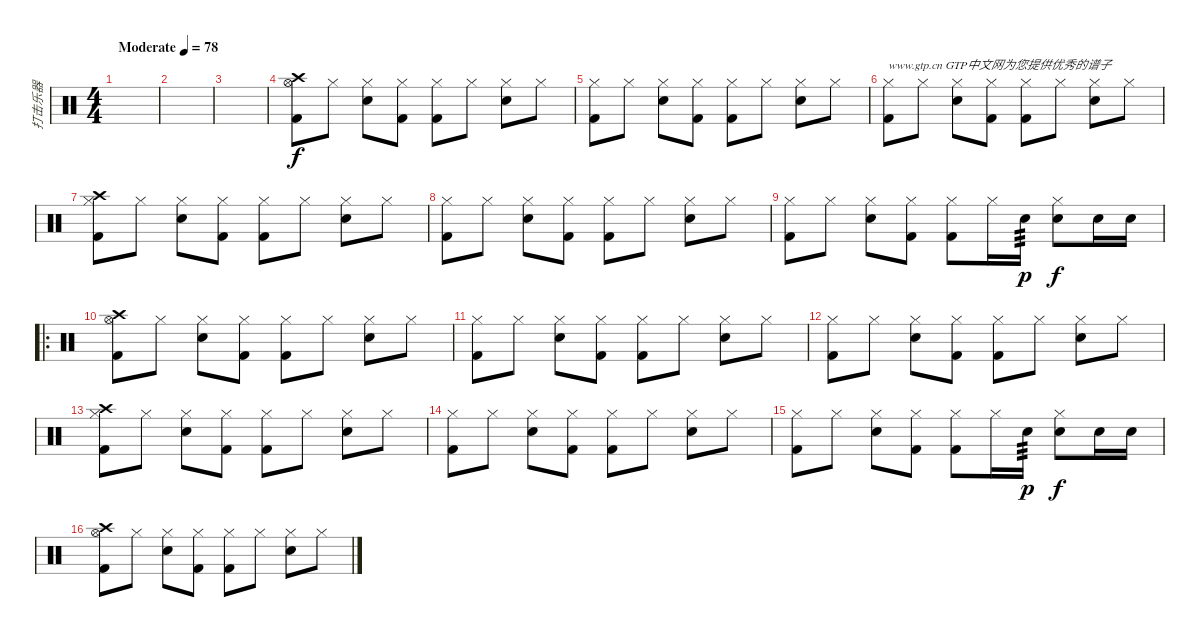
\track ("打击乐器" "打击乐器") {instrument percussion}
\staff {score}
\articulation defaults
\ts (4 4)
\tempo (78 "Moderate")
\clef neutral
\ks c
|
|
|
("Crash high (hit)" "Hi-Hat (open)" "Kick (hit) 2").8 "Hi-Hat (closed)".8 ("Hi-Hat (closed)" "Electric Snare (hit)").8 ("Hi-Hat (closed)" "Kick (hit) 2").8 ("Hi-Hat (closed)" "Kick (hit) 2").8 "Hi-Hat (closed)".8 ("Hi-Hat (closed)" "Electric Snare (hit)").8 "Hi-Hat (closed)".8 |
("Hi-Hat (closed)" "Kick (hit) 2").8 "Hi-Hat (closed)".8 ("Hi-Hat (closed)" "Electric Snare (hit)").8 ("Hi-Hat (closed)" "Kick (hit) 2").8 ("Hi-Hat (closed)" "Kick (hit) 2").8 "Hi-Hat (closed)".8 ("Hi-Hat (closed)" "Electric Snare (hit)").8 "Hi-Hat (closed)".8 |
("Hi-Hat (closed)" "Kick (hit) 2").8{txt "www.gtp.cn GTP中文网为您提供优秀的谱子"} "Hi-Hat (closed)".8 ("Hi-Hat (closed)" "Electric Snare (hit)").8 ("Hi-Hat (closed)" "Kick (hit) 2").8 ("Hi-Hat (closed)" "Kick (hit) 2").8 "Hi-Hat (closed)".8 ("Hi-Hat (closed)" "Electric Snare (hit)").8 "Hi-Hat (closed)".8 |
("Crash high (hit)" "Hi-Hat (closed)" "Kick (hit) 2").8 "Hi-Hat (closed)".8 ("Hi-Hat (closed)" "Electric Snare (hit)").8 ("Hi-Hat (closed)" "Kick (hit) 2").8 ("Hi-Hat (closed)" "Kick (hit) 2").8 "Hi-Hat (closed)".8 ("Hi-Hat (closed)" "Electric Snare (hit)").8 "Hi-Hat (closed)".8 |
("Hi-Hat (closed)" "Kick (hit) 2").8 "Hi-Hat (closed)".8 ("Hi-Hat (closed)" "Electric Snare (hit)").8 ("Hi-Hat (closed)" "Kick (hit) 2").8 ("Hi-Hat (closed)" "Kick (hit) 2").8 "Hi-Hat (closed)".8 ("Hi-Hat (closed)" "Electric Snare (hit)").8 "Hi-Hat (closed)".8 |
("Hi-Hat (closed)" "Kick (hit) 2").8 "Hi-Hat (closed)".8 ("Hi-Hat (closed)" "Electric Snare (hit)").8 ("Hi-Hat (closed)" "Kick (hit) 2").8 ("Hi-Hat (closed)" "Kick (hit) 2").8 "Hi-Hat (closed)".16 "Electric Snare (hit)".16{tp 3 dy p} ("Hi-Hat (closed)" "Electric Snare (hit)").8{dy f} "Electric Snare (hit)".16 "Electric Snare (hit)".16 |
\ro
("Crash high (hit)" "Hi-Hat (open)" "Kick (hit) 2").8 "Hi-Hat (closed)".8 ("Hi-Hat (closed)" "Electric Snare (hit)").8 ("Hi-Hat (closed)" "Kick (hit) 2").8 ("Hi-Hat (closed)" "Kick (hit) 2").8 "Hi-Hat (closed)".8 ("Hi-Hat (closed)" "Electric Snare (hit)").8 "Hi-Hat (closed)".8 |
("Hi-Hat (closed)" "Kick (hit) 2").8 "Hi-Hat (closed)".8 ("Hi-Hat (closed)" "Electric Snare (hit)").8 ("Hi-Hat (closed)" "Kick (hit) 2").8 ("Hi-Hat (closed)" "Kick (hit) 2").8 "Hi-Hat (closed)".8 ("Hi-Hat (closed)" "Electric Snare (hit)").8 "Hi-Hat (closed)".8 |
("Hi-Hat (closed)" "Kick (hit) 2").8 "Hi-Hat (closed)".8 ("Hi-Hat (closed)" "Electric Snare (hit)").8 ("Hi-Hat (closed)" "Kick (hit) 2").8 ("Hi-Hat (closed)" "Kick (hit) 2").8 "Hi-Hat (closed)".8 ("Hi-Hat (closed)" "Electric Snare (hit)").8 "Hi-Hat (closed)".8 |
("Crash high (hit)" "Hi-Hat (closed)" "Kick (hit) 2").8 "Hi-Hat (closed)".8 ("Hi-Hat (closed)" "Electric Snare (hit)").8 ("Hi-Hat (closed)" "Kick (hit) 2").8 ("Hi-Hat (closed)" "Kick (hit) 2").8 "Hi-Hat (closed)".8 ("Hi-Hat (closed)" "Electric Snare (hit)").8 "Hi-Hat (closed)".8 |
("Hi-Hat (closed)" "Kick (hit) 2").8 "Hi-Hat (closed)".8 ("Hi-Hat (closed)" "Electric Snare (hit)").8 ("Hi-Hat (closed)" "Kick (hit) 2").8 ("Hi-Hat (closed)" "Kick (hit) 2").8 "Hi-Hat (closed)".8 ("Hi-Hat (closed)" "Electric Snare (hit)").8 "Hi-Hat (closed)".8 |
("Hi-Hat (closed)" "Kick (hit) 2").8 "Hi-Hat (closed)".8 ("Hi-Hat (closed)" "Electric Snare (hit)").8 ("Hi-Hat (closed)" "Kick (hit) 2").8 ("Hi-Hat (closed)" "Kick (hit) 2").8 "Hi-Hat (closed)".16 "Electric Snare (hit)".16{tp 3 dy p} ("Hi-Hat (closed)" "Electric Snare (hit)").8{dy f} "Electric Snare (hit)".16 "Electric Snare (hit)".16 |
("Crash high (hit)" "Hi-Hat (open)" "Kick (hit) 2").8 "Hi-Hat (closed)".8 ("Hi-Hat (closed)" "Electric Snare (hit)").8 ("Hi-Hat (closed)" "Kick (hit) 2").8 ("Hi-Hat (closed)" "Kick (hit) 2").8 "Hi-Hat (closed)".8 ("Hi-Hat (closed)" "Electric Snare (hit)").8 "Hi-Hat (closed)".8
